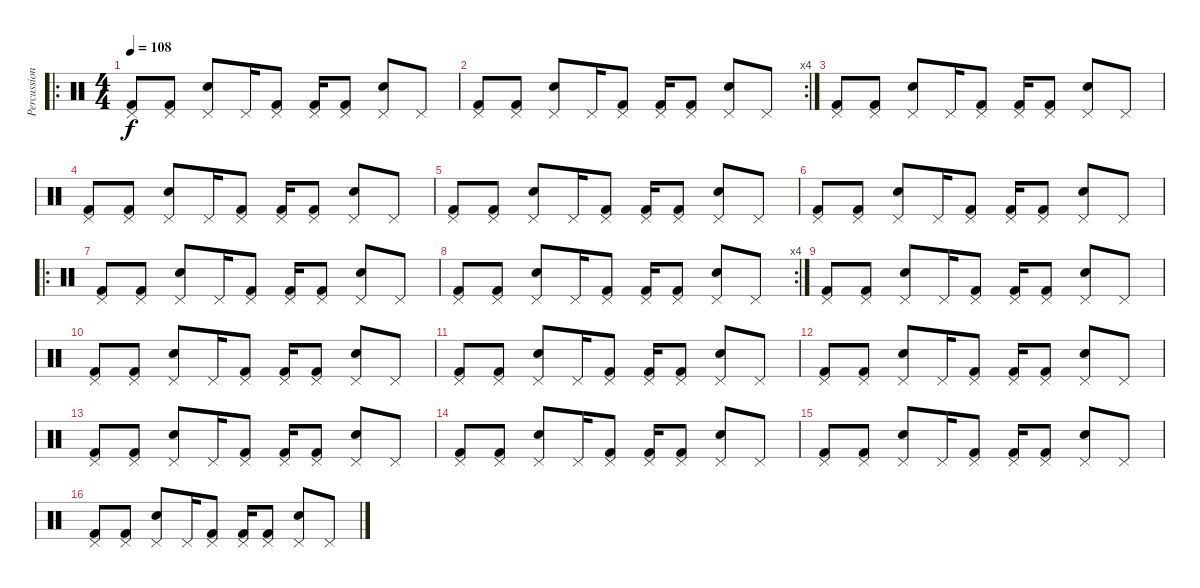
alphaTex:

\track ("Percussions" "Percussion") {instrument percussion}
\staff {score}
\articulation defaults
\ro
\ts (4 4)
\tempo 108
\clef neutral
\ks c
("Pedal Hi-Hat (hit)" "Kick (hit) 2").8{dy f} ("Pedal Hi-Hat (hit)" "Kick (hit) 2").8 ("Pedal Hi-Hat (hit)" "Snare (hit) 2").8 "Pedal Hi-Hat (hit)".16 ("Pedal Hi-Hat (hit)" "Kick (hit) 2").8 ("Pedal Hi-Hat (hit)" "Kick (hit) 2").16 ("Pedal Hi-Hat (hit)" "Kick (hit) 2").8 ("Pedal Hi-Hat (hit)" "Snare (hit) 2").8 "Pedal Hi-Hat (hit)".8 |
\rc 4
("Pedal Hi-Hat (hit)" "Kick (hit) 2").8 ("Pedal Hi-Hat (hit)" "Kick (hit) 2").8 ("Pedal Hi-Hat (hit)" "Snare (hit) 2").8 "Pedal Hi-Hat (hit)".16 ("Pedal Hi-Hat (hit)" "Kick (hit) 2").8 ("Pedal Hi-Hat (hit)" "Kick (hit) 2").16 ("Pedal Hi-Hat (hit)" "Kick (hit) 2").8 ("Pedal Hi-Hat (hit)" "Snare (hit) 2").8 "Pedal Hi-Hat (hit)".8 |
("Pedal Hi-Hat (hit)" "Kick (hit) 2").8 ("Pedal Hi-Hat (hit)" "Kick (hit) 2").8 ("Pedal Hi-Hat (hit)" "Snare (hit) 2").8 "Pedal Hi-Hat (hit)".16 ("Pedal Hi-Hat (hit)" "Kick (hit) 2").8 ("Pedal Hi-Hat (hit)" "Kick (hit) 2").16 ("Pedal Hi-Hat (hit)" "Kick (hit) 2").8 ("Pedal Hi-Hat (hit)" "Snare (hit) 2").8 "Pedal Hi-Hat (hit)".8 |
("Pedal Hi-Hat (hit)" "Kick (hit) 2").8 ("Pedal Hi-Hat (hit)" "Kick (hit) 2").8 ("Pedal Hi-Hat (hit)" "Snare (hit) 2").8 "Pedal Hi-Hat (hit)".16 ("Pedal Hi-Hat (hit)" "Kick (hit) 2").8 ("Pedal Hi-Hat (hit)" "Kick (hit) 2").16 ("Pedal Hi-Hat (hit)" "Kick (hit) 2").8 ("Pedal Hi-Hat (hit)" "Snare (hit) 2").8 "Pedal Hi-Hat (hit)".8 |
("Pedal Hi-Hat (hit)" "Kick (hit) 2").8 ("Pedal Hi-Hat (hit)" "Kick (hit) 2").8 ("Pedal Hi-Hat (hit)" "Snare (hit) 2").8 "Pedal Hi-Hat (hit)".16 ("Pedal Hi-Hat (hit)" "Kick (hit) 2").8 ("Pedal Hi-Hat (hit)" "Kick (hit) 2").16 ("Pedal Hi-Hat (hit)" "Kick (hit) 2").8 ("Pedal Hi-Hat (hit)" "Snare (hit) 2").8 "Pedal Hi-Hat (hit)".8 |
("Pedal Hi-Hat (hit)" "Kick (hit) 2").8 ("Pedal Hi-Hat (hit)" "Kick (hit) 2").8 ("Pedal Hi-Hat (hit)" "Snare (hit) 2").8 "Pedal Hi-Hat (hit)".16 ("Pedal Hi-Hat (hit)" "Kick (hit) 2").8 ("Pedal Hi-Hat (hit)" "Kick (hit) 2").16 ("Pedal Hi-Hat (hit)" "Kick (hit) 2").8 ("Pedal Hi-Hat (hit)" "Snare (hit) 2").8 "Pedal Hi-Hat (hit)".8 |
\ro
("Pedal Hi-Hat (hit)" "Kick (hit) 2").8 ("Pedal Hi-Hat (hit)" "Kick (hit) 2").8 ("Pedal Hi-Hat (hit)" "Snare (hit) 2").8 "Pedal Hi-Hat (hit)".16 ("Pedal Hi-Hat (hit)" "Kick (hit) 2").8 ("Pedal Hi-Hat (hit)" "Kick (hit) 2").16 ("Pedal Hi-Hat (hit)" "Kick (hit) 2").8 ("Pedal Hi-Hat (hit)" "Snare (hit) 2").8 "Pedal Hi-Hat (hit)".8 |
\rc 4
("Pedal Hi-Hat (hit)" "Kick (hit) 2").8 ("Pedal Hi-Hat (hit)" "Kick (hit) 2").8 ("Pedal Hi-Hat (hit)" "Snare (hit) 2").8 "Pedal Hi-Hat (hit)".16 ("Pedal Hi-Hat (hit)" "Kick (hit) 2").8 ("Pedal Hi-Hat (hit)" "Kick (hit) 2").16 ("Pedal Hi-Hat (hit)" "Kick (hit) 2").8 ("Pedal Hi-Hat (hit)" "Snare (hit) 2").8 "Pedal Hi-Hat (hit)".8 |
("Pedal Hi-Hat (hit)" "Kick (hit) 2").8 ("Pedal Hi-Hat (hit)" "Kick (hit) 2").8 ("Pedal Hi-Hat (hit)" "Snare (hit) 2").8 "Pedal Hi-Hat (hit)".16 ("Pedal Hi-Hat (hit)" "Kick (hit) 2").8 ("Pedal Hi-Hat (hit)" "Kick (hit) 2").16 ("Pedal Hi-Hat (hit)" "Kick (hit) 2").8 ("Pedal Hi-Hat (hit)" "Snare (hit) 2").8 "Pedal Hi-Hat (hit)".8 |
("Pedal Hi-Hat (hit)" "Kick (hit) 2").8 ("Pedal Hi-Hat (hit)" "Kick (hit) 2").8 ("Pedal Hi-Hat (hit)" "Snare (hit) 2").8 "Pedal Hi-Hat (hit)".16 ("Pedal Hi-Hat (hit)" "Kick (hit) 2").8 ("Pedal Hi-Hat (hit)" "Kick (hit) 2").16 ("Pedal Hi-Hat (hit)" "Kick (hit) 2").8 ("Pedal Hi-Hat (hit)" "Snare (hit) 2").8 "Pedal Hi-Hat (hit)".8 |
("Pedal Hi-Hat (hit)" "Kick (hit) 2").8 ("Pedal Hi-Hat (hit)" "Kick (hit) 2").8 ("Pedal Hi-Hat (hit)" "Snare (hit) 2").8 "Pedal Hi-Hat (hit)".16 ("Pedal Hi-Hat (hit)" "Kick (hit) 2").8 ("Pedal Hi-Hat (hit)" "Kick (hit) 2").16 ("Pedal Hi-Hat (hit)" "Kick (hit) 2").8 ("Pedal Hi-Hat (hit)" "Snare (hit) 2").8 "Pedal Hi-Hat (hit)".8 |
("Pedal Hi-Hat (hit)" "Kick (hit) 2").8 ("Pedal Hi-Hat (hit)" "Kick (hit) 2").8 ("Pedal Hi-Hat (hit)" "Snare (hit) 2").8 "Pedal Hi-Hat (hit)".16 ("Pedal Hi-Hat (hit)" "Kick (hit) 2").8 ("Pedal Hi-Hat (hit)" "Kick (hit) 2").16 ("Pedal Hi-Hat (hit)" "Kick (hit) 2").8 ("Pedal Hi-Hat (hit)" "Snare (hit) 2").8 "Pedal Hi-Hat (hit)".8 |
("Pedal Hi-Hat (hit)" "Kick (hit) 2").8 ("Pedal Hi-Hat (hit)" "Kick (hit) 2").8 ("Pedal Hi-Hat (hit)" "Snare (hit) 2").8 "Pedal Hi-Hat (hit)".16 ("Pedal Hi-Hat (hit)" "Kick (hit) 2").8 ("Pedal Hi-Hat (hit)" "Kick (hit) 2").16 ("Pedal Hi-Hat (hit)" "Kick (hit) 2").8 ("Pedal Hi-Hat (hit)" "Snare (hit) 2").8 "Pedal Hi-Hat (hit)".8 |
("Pedal Hi-Hat (hit)" "Kick (hit) 2").8 ("Pedal Hi-Hat (hit)" "Kick (hit) 2").8 ("Pedal Hi-Hat (hit)" "Snare (hit) 2").8 "Pedal Hi-Hat (hit)".16 ("Pedal Hi-Hat (hit)" "Kick (hit) 2").8 ("Pedal Hi-Hat (hit)" "Kick (hit) 2").16 ("Pedal Hi-Hat (hit)" "Kick (hit) 2").8 ("Pedal Hi-Hat (hit)" "Snare (hit) 2").8 "Pedal Hi-Hat (hit)".8 |
("Pedal Hi-Hat (hit)" "Kick (hit) 2").8 ("Pedal Hi-Hat (hit)" "Kick (hit) 2").8 ("Pedal Hi-Hat (hit)" "Snare (hit) 2").8 "Pedal Hi-Hat (hit)".16 ("Pedal Hi-Hat (hit)" "Kick (hit) 2").8 ("Pedal Hi-Hat (hit)" "Kick (hit) 2").16 ("Pedal Hi-Hat (hit)" "Kick (hit) 2").8 ("Pedal Hi-Hat (hit)" "Snare (hit) 2").8 "Pedal Hi-Hat (hit)".8 |
("Pedal Hi-Hat (hit)" "Kick (hit) 2").8 ("Pedal Hi-Hat (hit)" "Kick (hit) 2").8 ("Pedal Hi-Hat (hit)" "Snare (hit) 2").8 "Pedal Hi-Hat (hit)".16 ("Pedal Hi-Hat (hit)" "Kick (hit) 2").8 ("Pedal Hi-Hat (hit)" "Kick (hit) 2").16 ("Pedal Hi-Hat (hit)" "Kick (hit) 2").8 ("Pedal Hi-Hat (hit)" "Snare (hit) 2").8 "Pedal Hi-Hat (hit)".8
